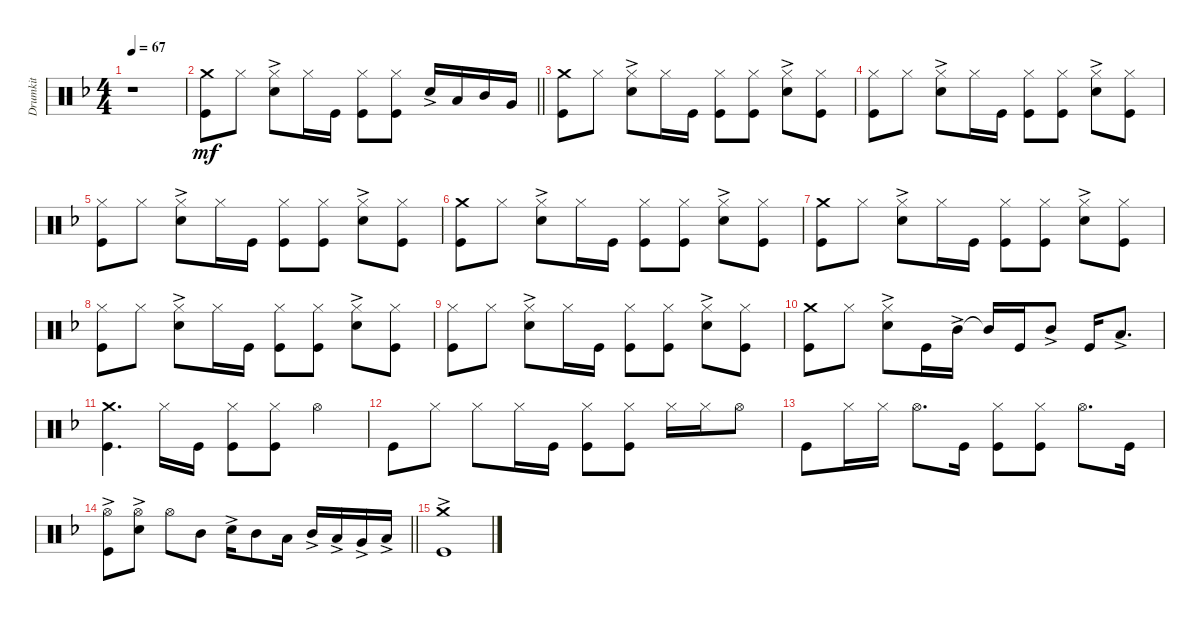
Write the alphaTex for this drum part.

\track ("Drumkit" "Drumkit") {instrument percussion}
\staff {score}
\articulation defaults
\ts (4 4)
\tempo 67
\clef neutral
\ks dminor
r.1{dy mf} |
\barLineRight lightlight
("Crash medium (hit)" "Kick (hit)").8 "Hi-Hat (closed)".8 ("Snare (hit) 2"{ac} "Hi-Hat (closed)").8 "Hi-Hat (closed)".16 "Kick (hit)".16 ("Kick (hit)" "Hi-Hat (closed)").8 ("Kick (hit)" "Hi-Hat (closed)").8 "Snare (hit) 2"{ac}.16 "Low Tom (hit)".16 "Mid Tom (hit)".16 "Very Low Tom (hit)".16 |
("Crash medium (hit)" "Kick (hit)").8 "Hi-Hat (closed)".8 ("Hi-Hat (closed)" "Snare (hit) 2"{ac}).8 "Hi-Hat (closed)".16 "Kick (hit)".16 ("Hi-Hat (closed)" "Kick (hit)").8 ("Hi-Hat (closed)" "Kick (hit)").8 ("Hi-Hat (closed)" "Snare (hit) 2"{ac}).8 ("Hi-Hat (closed)" "Kick (hit)").8 |
("Kick (hit)" "Hi-Hat (closed)").8 "Hi-Hat (closed)".8 ("Hi-Hat (closed)" "Snare (hit) 2"{ac}).8 "Hi-Hat (closed)".16 "Kick (hit)".16 ("Hi-Hat (closed)" "Kick (hit)").8 ("Hi-Hat (closed)" "Kick (hit)").8 ("Hi-Hat (closed)" "Snare (hit) 2"{ac}).8 ("Hi-Hat (closed)" "Kick (hit)").8 |
("Kick (hit)" "Hi-Hat (closed)").8 "Hi-Hat (closed)".8 ("Hi-Hat (closed)" "Snare (hit) 2"{ac}).8 "Hi-Hat (closed)".16 "Kick (hit)".16 ("Hi-Hat (closed)" "Kick (hit)").8 ("Hi-Hat (closed)" "Kick (hit)").8 ("Hi-Hat (closed)" "Snare (hit) 2"{ac}).8 ("Hi-Hat (closed)" "Kick (hit)").8 |
("Kick (hit)" "Crash medium (hit)").8 "Hi-Hat (closed)".8 ("Hi-Hat (closed)" "Snare (hit) 2"{ac}).8 "Hi-Hat (closed)".16 "Kick (hit)".16 ("Hi-Hat (closed)" "Kick (hit)").8 ("Hi-Hat (closed)" "Kick (hit)").8 ("Hi-Hat (closed)" "Snare (hit) 2"{ac}).8 ("Hi-Hat (closed)" "Kick (hit)").8 |
("Kick (hit)" "Crash medium (hit)").8 "Hi-Hat (closed)".8 ("Hi-Hat (closed)" "Snare (hit) 2"{ac}).8 "Hi-Hat (closed)".16 "Kick (hit)".16 ("Hi-Hat (closed)" "Kick (hit)").8 ("Hi-Hat (closed)" "Kick (hit)").8 ("Hi-Hat (closed)" "Snare (hit) 2"{ac}).8 ("Hi-Hat (closed)" "Kick (hit)").8 |
("Kick (hit)" "Hi-Hat (closed)").8 "Hi-Hat (closed)".8 ("Hi-Hat (closed)" "Snare (hit) 2"{ac}).8 "Hi-Hat (closed)".16 "Kick (hit)".16 ("Hi-Hat (closed)" "Kick (hit)").8 ("Hi-Hat (closed)" "Kick (hit)").8 ("Hi-Hat (closed)" "Snare (hit) 2"{ac}).8 ("Hi-Hat (closed)" "Kick (hit)").8 |
("Kick (hit)" "Hi-Hat (closed)").8 "Hi-Hat (closed)".8 ("Hi-Hat (closed)" "Snare (hit) 2"{ac}).8 "Hi-Hat (closed)".16 "Kick (hit)".16 ("Hi-Hat (closed)" "Kick (hit)").8 ("Hi-Hat (closed)" "Kick (hit)").8 ("Hi-Hat (closed)" "Snare (hit) 2"{ac}).8 ("Hi-Hat (closed)" "Kick (hit)").8 |
("Crash medium (hit)" "Kick (hit)").8 "Hi-Hat (closed)".8 ("Snare (hit) 2"{ac} "Hi-Hat (closed)").8 "Kick (hit)".16 "Mid Tom (hit)"{ac}.16 "Mid Tom (hit)"{t}.16 "Kick (hit)".16 "Mid Tom (hit)"{ac}.8 "Kick (hit)".16 "Low Tom (hit)"{ac}.8{d} |
("Crash medium (hit)" "Kick (hit)").4{d} "Hi-Hat (closed)".16 "Kick (hit)".16 ("Kick (hit)" "Hi-Hat (closed)").8 ("Kick (hit)" "Hi-Hat (closed)").8 "Hi-Hat (open)".4 |
"Kick (hit)".8 "Hi-Hat (closed)".8 "Hi-Hat (closed)".8 "Hi-Hat (closed)".16 "Kick (hit)".16 ("Hi-Hat (closed)" "Kick (hit)").8 ("Hi-Hat (closed)" "Kick (hit)").8 "Hi-Hat (closed)".16 "Hi-Hat (closed)".16 "Hi-Hat (open)".8 |
"Kick (hit)".8 "Hi-Hat (closed)".16 "Hi-Hat (closed)".16 "Hi-Hat (open)".8{d} "Kick (hit)".16 ("Kick (hit)" "Hi-Hat (closed)").8 ("Kick (hit)" "Hi-Hat (closed)").8 "Hi-Hat (open)".8{d} "Kick (hit)".16 |
\barLineRight lightlight
("Kick (hit)" "Hi-Hat (open)"{ac}).8 ("Snare (hit) 2"{ac} "Hi-Hat (open)").8 "Hi-Hat (open)".8 "Mid Tom (hit)".8 "Snare (hit) 2"{ac}.16 "Mid Tom (hit)".8 "Low Tom (hit)".16 "Mid Tom (hit)"{ac}.16 "Low Tom (hit)"{ac}.16 "Very Low Tom (hit)"{ac}.16 "Low Floor Tom (hit)"{ac}.16 |
("Kick (hit)"{ac} "Crash medium (hit)"{ac}).1
